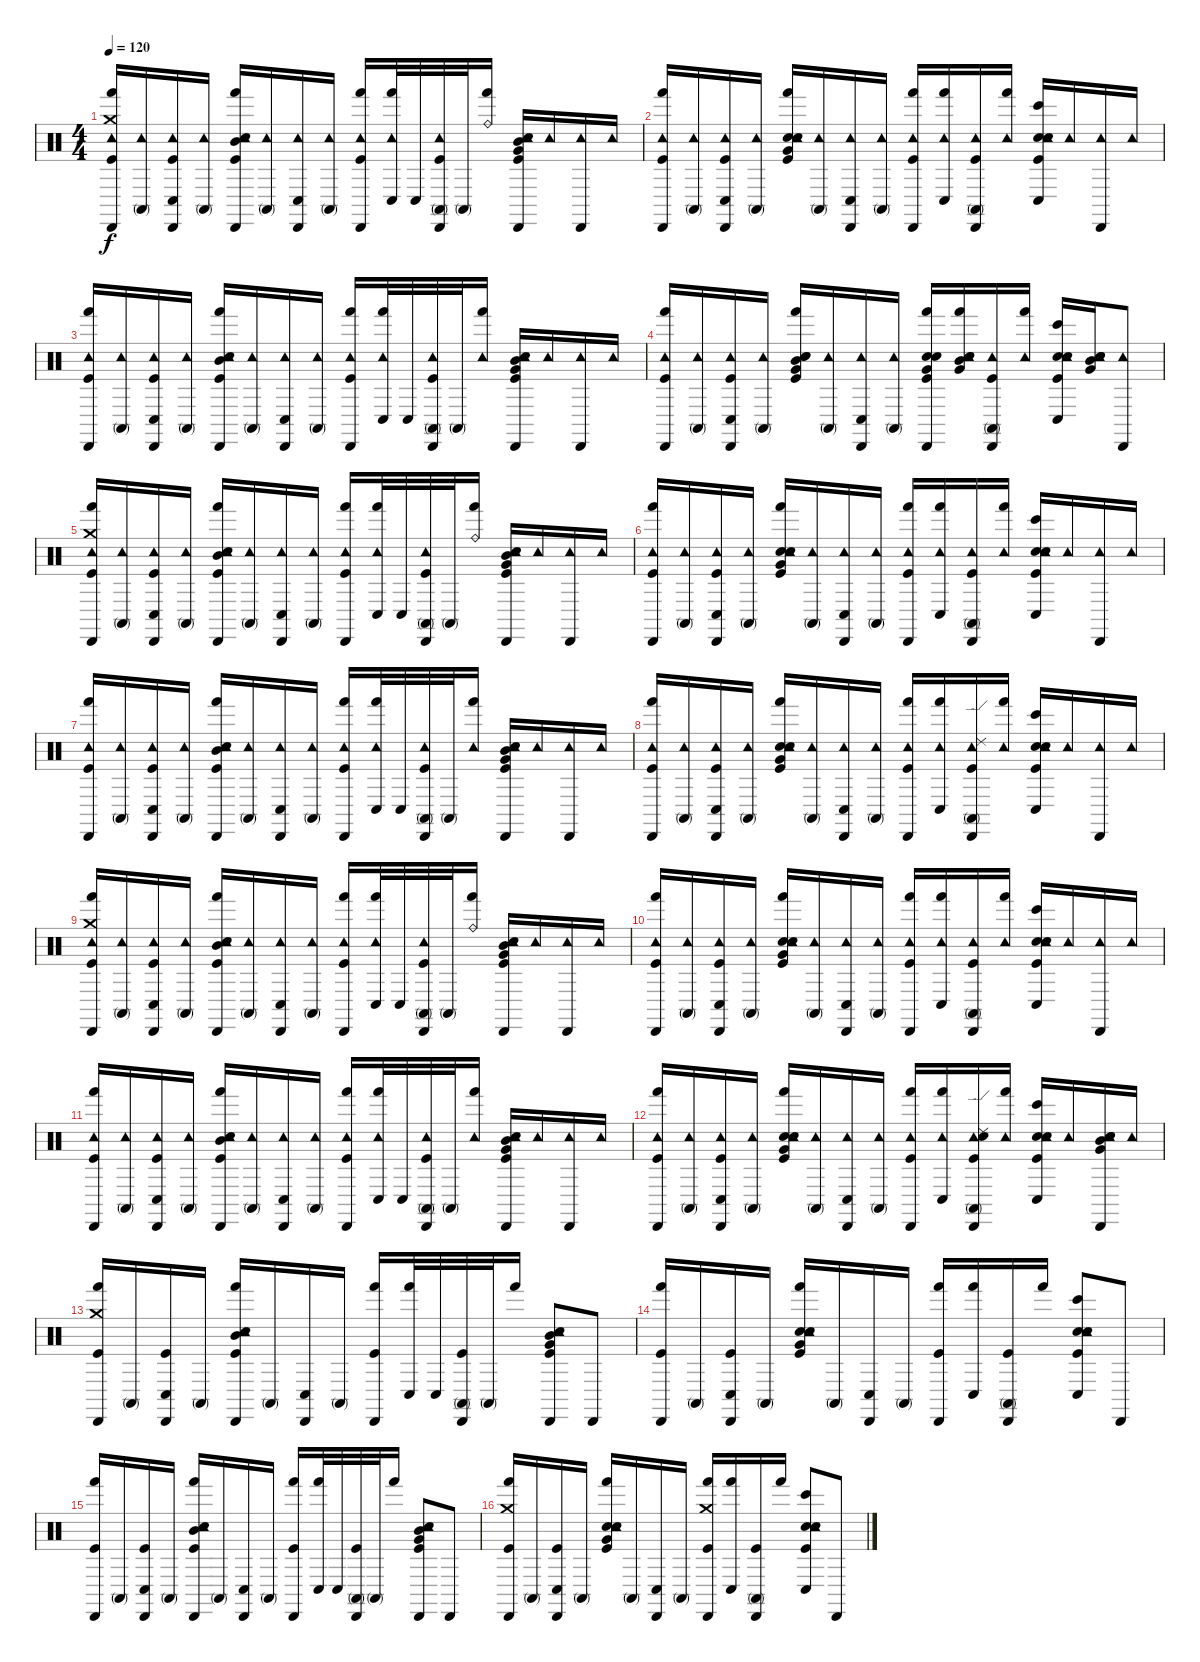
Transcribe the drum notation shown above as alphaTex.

\track "" {instrument percussion}
\staff {score}
\articulation defaults
\ts (4 4)
\tempo 120
\clef neutral
\ks c
("Hand (hit)" "Kick (hit)" "Cabasa (hit)" "Crash medium (hit)" "Tambourine (hit)").16{dy f} ("Conga high (mute)" "Tambourine (hit)").16 ("Conga low (hit)" "Kick (hit)" "Cabasa (hit)" "Tambourine (hit)").16 ("Conga high (mute)" "Tambourine (hit)").16 ("Hand (hit)" "Kick (hit)" "Tambourine (hit)" "Snare (hit) 2" "Cabasa (hit)" "Mid Tom (hit)").16 ("Conga high (mute)" "Tambourine (hit)").16 ("Conga low (hit)" "Cabasa (hit)" "Tambourine (hit)").16 ("Conga high (mute)" "Tambourine (hit)").16 ("Hand (hit)" "Kick (hit)" "Cabasa (hit)" "Tambourine (hit)").16 ("Conga low (hit)" "Hand (hit)" "Tambourine (hit)").32 "Conga low (hit)".32 ("Conga high (mute)" "Kick (hit)" "Cabasa (hit)" "Tambourine (hit)").32 "Conga high (mute)".32 ("Hand (hit)" "Ride (bell)").16 ("Kick (hit)" "Snare (hit) 2" "Tambourine (hit)" "Cabasa (hit)" "Mid Tom (hit)" "Very Low Tom (hit)").16 "Tambourine (hit)".16 ("Cabasa (hit)" "Tambourine (hit)").16 "Tambourine (hit)".16 |
("Hand (hit)" "Kick (hit)" "Cabasa (hit)" "Tambourine (hit)").16 ("Conga high (mute)" "Tambourine (hit)").16 ("Conga low (hit)" "Kick (hit)" "Cabasa (hit)" "Tambourine (hit)").16 ("Conga high (mute)" "Tambourine (hit)").16 ("Hand (hit)" "Kick (hit)" "Snare (hit) 2" "Tambourine (hit)" "Electric Snare (hit)" "Very Low Tom (hit)").16 ("Conga high (mute)" "Tambourine (hit)").16 ("Conga low (hit)" "Cabasa (hit)" "Tambourine (hit)").16 ("Conga high (mute)" "Tambourine (hit)").16 ("Hand (hit)" "Kick (hit)" "Cabasa (hit)" "Tambourine (hit)").16 ("Conga low (hit)" "Hand (hit)" "Tambourine (hit)").16 ("Conga high (mute)" "Kick (hit)" "Cabasa (hit)" "Tambourine (hit)").16 ("Hand (hit)" "Tambourine (hit)").16 ("Kick (hit)" "Snare (hit) 2" "Tambourine (hit)" "Bongo High (hit)" "Conga low (hit)" "Electric Snare (hit)").16 "Tambourine (hit)".16 ("Cabasa (hit)" "Tambourine (hit)").16 "Tambourine (hit)".16 |
("Hand (hit)" "Kick (hit)" "Cabasa (hit)" "Tambourine (hit)").16 ("Conga high (mute)" "Tambourine (hit)").16 ("Conga low (hit)" "Kick (hit)" "Cabasa (hit)" "Tambourine (hit)").16 ("Conga high (mute)" "Tambourine (hit)").16 ("Hand (hit)" "Kick (hit)" "Tambourine (hit)" "Snare (hit) 2" "Cabasa (hit)" "Mid Tom (hit)").16 ("Conga high (mute)" "Tambourine (hit)").16 ("Conga low (hit)" "Cabasa (hit)" "Tambourine (hit)").16 ("Conga high (mute)" "Tambourine (hit)").16 ("Hand (hit)" "Kick (hit)" "Cabasa (hit)" "Tambourine (hit)").16 ("Conga low (hit)" "Hand (hit)" "Tambourine (hit)").32 "Conga low (hit)".32 ("Conga high (mute)" "Kick (hit)" "Cabasa (hit)" "Tambourine (hit)").32 "Conga high (mute)".32 ("Hand (hit)" "Tambourine (hit)").16 ("Kick (hit)" "Snare (hit) 2" "Tambourine (hit)" "Cabasa (hit)" "Mid Tom (hit)" "Very Low Tom (hit)").16 "Tambourine (hit)".16 ("Cabasa (hit)" "Tambourine (hit)").16 "Tambourine (hit)".16 |
("Hand (hit)" "Kick (hit)" "Cabasa (hit)" "Tambourine (hit)").16 ("Conga high (mute)" "Tambourine (hit)").16 ("Conga low (hit)" "Kick (hit)" "Cabasa (hit)" "Tambourine (hit)").16 ("Conga high (mute)" "Tambourine (hit)").16 ("Hand (hit)" "Kick (hit)" "Snare (hit) 2" "Electric Snare (hit)" "Very Low Tom (hit)" "Mid Tom (hit)").16 ("Conga high (mute)" "Tambourine (hit)").16 ("Conga low (hit)" "Cabasa (hit)" "Tambourine (hit)").16 ("Conga high (mute)" "Tambourine (hit)").16 ("Hand (hit)" "Kick (hit)" "Cabasa (hit)" "Electric Snare (hit)" "Snare (hit) 2" "Very Low Tom (hit)").16 ("Hand (hit)" "Snare (hit) 2" "Electric Snare (hit)" "Very Low Tom (hit)" "Mid Tom (hit)" "Tambourine (hit)").16 ("Conga high (mute)" "Kick (hit)" "Cabasa (hit)" "Tambourine (hit)").16 ("Hand (hit)" "Tambourine (hit)").16 ("Kick (hit)" "Snare (hit) 2" "Tambourine (hit)" "Bongo High (hit)" "Conga low (hit)" "Electric Snare (hit)").16 ("Snare (hit) 2" "Electric Snare (hit)" "Very Low Tom (hit)" "Mid Tom (hit)" "Tambourine (hit)").16 ("Cabasa (hit)" "Tambourine (hit)").8 |
("Hand (hit)" "Kick (hit)" "Cabasa (hit)" "Crash medium (hit)" "Tambourine (hit)").16 ("Conga high (mute)" "Tambourine (hit)").16 ("Conga low (hit)" "Kick (hit)" "Cabasa (hit)" "Tambourine (hit)").16 ("Conga high (mute)" "Tambourine (hit)").16 ("Hand (hit)" "Kick (hit)" "Tambourine (hit)" "Snare (hit) 2" "Cabasa (hit)" "Mid Tom (hit)").16 ("Conga high (mute)" "Tambourine (hit)").16 ("Conga low (hit)" "Cabasa (hit)" "Tambourine (hit)").16 ("Conga high (mute)" "Tambourine (hit)").16 ("Hand (hit)" "Kick (hit)" "Cabasa (hit)" "Tambourine (hit)").16 ("Conga low (hit)" "Hand (hit)" "Tambourine (hit)").32 "Conga low (hit)".32 ("Conga high (mute)" "Kick (hit)" "Cabasa (hit)" "Tambourine (hit)").32 "Conga high (mute)".32 ("Hand (hit)" "Ride (bell)").16 ("Kick (hit)" "Snare (hit) 2" "Tambourine (hit)" "Cabasa (hit)" "Mid Tom (hit)" "Very Low Tom (hit)").16 "Tambourine (hit)".16 ("Cabasa (hit)" "Tambourine (hit)").16 "Tambourine (hit)".16 |
("Hand (hit)" "Kick (hit)" "Cabasa (hit)" "Tambourine (hit)").16 ("Conga high (mute)" "Tambourine (hit)").16 ("Conga low (hit)" "Kick (hit)" "Cabasa (hit)" "Tambourine (hit)").16 ("Conga high (mute)" "Tambourine (hit)").16 ("Hand (hit)" "Kick (hit)" "Snare (hit) 2" "Tambourine (hit)" "Electric Snare (hit)" "Very Low Tom (hit)").16 ("Conga high (mute)" "Tambourine (hit)").16 ("Conga low (hit)" "Cabasa (hit)" "Tambourine (hit)").16 ("Conga high (mute)" "Tambourine (hit)").16 ("Hand (hit)" "Kick (hit)" "Cabasa (hit)" "Tambourine (hit)").16 ("Conga low (hit)" "Hand (hit)" "Tambourine (hit)").16 ("Conga high (mute)" "Kick (hit)" "Cabasa (hit)" "Tambourine (hit)").16 ("Hand (hit)" "Tambourine (hit)").16 ("Kick (hit)" "Snare (hit) 2" "Tambourine (hit)" "Bongo High (hit)" "Conga low (hit)" "Electric Snare (hit)").16 "Tambourine (hit)".16 ("Cabasa (hit)" "Tambourine (hit)").16 "Tambourine (hit)".16 |
("Hand (hit)" "Kick (hit)" "Cabasa (hit)" "Tambourine (hit)").16 ("Conga high (mute)" "Tambourine (hit)").16 ("Conga low (hit)" "Kick (hit)" "Cabasa (hit)" "Tambourine (hit)").16 ("Conga high (mute)" "Tambourine (hit)").16 ("Hand (hit)" "Kick (hit)" "Tambourine (hit)" "Snare (hit) 2" "Cabasa (hit)" "Mid Tom (hit)").16 ("Conga high (mute)" "Tambourine (hit)").16 ("Conga low (hit)" "Cabasa (hit)" "Tambourine (hit)").16 ("Conga high (mute)" "Tambourine (hit)").16 ("Hand (hit)" "Kick (hit)" "Cabasa (hit)" "Tambourine (hit)").16 ("Conga low (hit)" "Hand (hit)" "Tambourine (hit)").32 "Conga low (hit)".32 ("Conga high (mute)" "Kick (hit)" "Cabasa (hit)" "Tambourine (hit)").32 "Conga high (mute)".32 ("Hand (hit)" "Tambourine (hit)").16 ("Kick (hit)" "Snare (hit) 2" "Tambourine (hit)" "Cabasa (hit)" "Mid Tom (hit)" "Very Low Tom (hit)").16 "Tambourine (hit)".16 ("Cabasa (hit)" "Tambourine (hit)").16 "Tambourine (hit)".16 |
("Hand (hit)" "Kick (hit)" "Cabasa (hit)" "Tambourine (hit)").16 ("Conga high (mute)" "Tambourine (hit)").16 ("Conga low (hit)" "Kick (hit)" "Cabasa (hit)" "Tambourine (hit)").16 ("Conga high (mute)" "Tambourine (hit)").16 ("Hand (hit)" "Kick (hit)" "Snare (hit) 2" "Tambourine (hit)" "Electric Snare (hit)" "Very Low Tom (hit)").16 ("Conga high (mute)" "Tambourine (hit)").16 ("Conga low (hit)" "Cabasa (hit)" "Tambourine (hit)").16 ("Conga high (mute)" "Tambourine (hit)").16 ("Hand (hit)" "Kick (hit)" "Cabasa (hit)" "Tambourine (hit)").16 ("Conga low (hit)" "Hand (hit)" "Tambourine (hit)").16 ("Conga high (mute)" "Kick (hit)" "Cabasa (hit)" "Ride (edge) 2" "Tambourine (hit)").16 ("Hand (hit)" "Tambourine (hit)").16 ("Kick (hit)" "Snare (hit) 2" "Tambourine (hit)" "Bongo High (hit)" "Conga low (hit)" "Electric Snare (hit)").16 "Tambourine (hit)".16 ("Cabasa (hit)" "Tambourine (hit)").16 "Tambourine (hit)".16 |
("Hand (hit)" "Kick (hit)" "Cabasa (hit)" "Crash medium (hit)" "Tambourine (hit)").16 ("Conga high (mute)" "Tambourine (hit)").16 ("Conga low (hit)" "Kick (hit)" "Cabasa (hit)" "Tambourine (hit)").16 ("Conga high (mute)" "Tambourine (hit)").16 ("Hand (hit)" "Kick (hit)" "Tambourine (hit)" "Snare (hit) 2" "Cabasa (hit)" "Mid Tom (hit)").16 ("Conga high (mute)" "Tambourine (hit)").16 ("Conga low (hit)" "Cabasa (hit)" "Tambourine (hit)").16 ("Conga high (mute)" "Tambourine (hit)").16 ("Hand (hit)" "Kick (hit)" "Cabasa (hit)" "Tambourine (hit)").16 ("Conga low (hit)" "Hand (hit)" "Tambourine (hit)").32 "Conga low (hit)".32 ("Conga high (mute)" "Kick (hit)" "Cabasa (hit)" "Tambourine (hit)").32 "Conga high (mute)".32 ("Hand (hit)" "Ride (bell)").16 ("Kick (hit)" "Snare (hit) 2" "Tambourine (hit)" "Cabasa (hit)" "Mid Tom (hit)" "Very Low Tom (hit)").16 "Tambourine (hit)".16 ("Cabasa (hit)" "Tambourine (hit)").16 "Tambourine (hit)".16 |
("Hand (hit)" "Kick (hit)" "Cabasa (hit)" "Tambourine (hit)").16 ("Conga high (mute)" "Tambourine (hit)").16 ("Conga low (hit)" "Kick (hit)" "Cabasa (hit)" "Tambourine (hit)").16 ("Conga high (mute)" "Tambourine (hit)").16 ("Hand (hit)" "Kick (hit)" "Snare (hit) 2" "Tambourine (hit)" "Electric Snare (hit)" "Very Low Tom (hit)").16 ("Conga high (mute)" "Tambourine (hit)").16 ("Conga low (hit)" "Cabasa (hit)" "Tambourine (hit)").16 ("Conga high (mute)" "Tambourine (hit)").16 ("Hand (hit)" "Kick (hit)" "Cabasa (hit)" "Tambourine (hit)").16 ("Conga low (hit)" "Hand (hit)" "Tambourine (hit)").16 ("Conga high (mute)" "Kick (hit)" "Cabasa (hit)" "Tambourine (hit)").16 ("Hand (hit)" "Tambourine (hit)").16 ("Kick (hit)" "Snare (hit) 2" "Tambourine (hit)" "Bongo High (hit)" "Conga low (hit)" "Electric Snare (hit)").16 "Tambourine (hit)".16 ("Cabasa (hit)" "Tambourine (hit)").16 "Tambourine (hit)".16 |
("Hand (hit)" "Kick (hit)" "Cabasa (hit)" "Tambourine (hit)").16 ("Conga high (mute)" "Tambourine (hit)").16 ("Conga low (hit)" "Kick (hit)" "Cabasa (hit)" "Tambourine (hit)").16 ("Conga high (mute)" "Tambourine (hit)").16 ("Hand (hit)" "Kick (hit)" "Tambourine (hit)" "Snare (hit) 2" "Cabasa (hit)" "Mid Tom (hit)").16 ("Conga high (mute)" "Tambourine (hit)").16 ("Conga low (hit)" "Cabasa (hit)" "Tambourine (hit)").16 ("Conga high (mute)" "Tambourine (hit)").16 ("Hand (hit)" "Kick (hit)" "Cabasa (hit)" "Tambourine (hit)").16 ("Conga low (hit)" "Hand (hit)" "Tambourine (hit)").32 "Conga low (hit)".32 ("Conga high (mute)" "Kick (hit)" "Cabasa (hit)" "Tambourine (hit)").32 "Conga high (mute)".32 ("Hand (hit)" "Tambourine (hit)").16 ("Kick (hit)" "Snare (hit) 2" "Tambourine (hit)" "Cabasa (hit)" "Mid Tom (hit)" "Very Low Tom (hit)").16 "Tambourine (hit)".16 ("Cabasa (hit)" "Tambourine (hit)").16 "Tambourine (hit)".16 |
("Hand (hit)" "Kick (hit)" "Cabasa (hit)" "Tambourine (hit)").16 ("Conga high (mute)" "Tambourine (hit)").16 ("Conga low (hit)" "Kick (hit)" "Cabasa (hit)" "Tambourine (hit)").16 ("Conga high (mute)" "Tambourine (hit)").16 ("Hand (hit)" "Kick (hit)" "Snare (hit) 2" "Tambourine (hit)" "Electric Snare (hit)" "Very Low Tom (hit)").16 ("Conga high (mute)" "Tambourine (hit)").16 ("Conga low (hit)" "Cabasa (hit)" "Tambourine (hit)").16 ("Conga high (mute)" "Tambourine (hit)").16 ("Hand (hit)" "Kick (hit)" "Cabasa (hit)" "Tambourine (hit)").16 ("Conga low (hit)" "Hand (hit)" "Tambourine (hit)").16 ("Conga high (mute)" "Kick (hit)" "Cabasa (hit)" "Ride (edge) 2" "Tambourine (hit)" "Electric Snare (hit)").16 ("Hand (hit)" "Tambourine (hit)").16 ("Kick (hit)" "Snare (hit) 2" "Tambourine (hit)" "Bongo High (hit)" "Conga low (hit)" "Electric Snare (hit)").16 "Tambourine (hit)".16 ("Cabasa (hit)" "Tambourine (hit)" "Mid Tom (hit)" "Very Low Tom (hit)" "Electric Snare (hit)" "Snare (hit) 2").16 "Tambourine (hit)".16 |
("Hand (hit)" "Kick (hit)" "Cabasa (hit)" "Crash medium (hit)").16 "Conga high (mute)".16 ("Conga low (hit)" "Kick (hit)" "Cabasa (hit)").16 "Conga high (mute)".16 ("Hand (hit)" "Kick (hit)" "Tambourine (hit)" "Snare (hit) 2" "Cabasa (hit)" "Mid Tom (hit)").16 "Conga high (mute)".16 ("Conga low (hit)" "Cabasa (hit)").16 "Conga high (mute)".16 ("Hand (hit)" "Kick (hit)" "Cabasa (hit)").16 ("Conga low (hit)" "Hand (hit)").32 "Conga low (hit)".32 ("Conga high (mute)" "Kick (hit)" "Cabasa (hit)").32 "Conga high (mute)".32 "Hand (hit)".16 ("Kick (hit)" "Snare (hit) 2" "Tambourine (hit)" "Cabasa (hit)" "Mid Tom (hit)" "Very Low Tom (hit)").8 "Cabasa (hit)".8 |
("Hand (hit)" "Kick (hit)" "Cabasa (hit)").16 "Conga high (mute)".16 ("Conga low (hit)" "Kick (hit)" "Cabasa (hit)").16 "Conga high (mute)".16 ("Hand (hit)" "Kick (hit)" "Snare (hit) 2" "Tambourine (hit)" "Electric Snare (hit)" "Very Low Tom (hit)").16 "Conga high (mute)".16 ("Conga low (hit)" "Cabasa (hit)").16 "Conga high (mute)".16 ("Hand (hit)" "Kick (hit)" "Cabasa (hit)").16 ("Conga low (hit)" "Hand (hit)").16 ("Conga high (mute)" "Kick (hit)" "Cabasa (hit)").16 "Hand (hit)".16 ("Kick (hit)" "Snare (hit) 2" "Tambourine (hit)" "Bongo High (hit)" "Conga low (hit)" "Electric Snare (hit)").8 "Cabasa (hit)".8 |
("Hand (hit)" "Kick (hit)" "Cabasa (hit)").16 "Conga high (mute)".16 ("Conga low (hit)" "Kick (hit)" "Cabasa (hit)").16 "Conga high (mute)".16 ("Hand (hit)" "Kick (hit)" "Tambourine (hit)" "Snare (hit) 2" "Cabasa (hit)" "Mid Tom (hit)").16 "Conga high (mute)".16 ("Conga low (hit)" "Cabasa (hit)").16 "Conga high (mute)".16 ("Hand (hit)" "Kick (hit)" "Cabasa (hit)").16 ("Conga low (hit)" "Hand (hit)").32 "Conga low (hit)".32 ("Conga high (mute)" "Kick (hit)" "Cabasa (hit)").32 "Conga high (mute)".32 "Hand (hit)".16 ("Kick (hit)" "Snare (hit) 2" "Tambourine (hit)" "Cabasa (hit)" "Mid Tom (hit)" "Very Low Tom (hit)").8 "Cabasa (hit)".8 |
("Hand (hit)" "Kick (hit)" "Cabasa (hit)" "Crash medium (hit)").16 "Conga high (mute)".16 ("Conga low (hit)" "Kick (hit)" "Cabasa (hit)").16 "Conga high (mute)".16 ("Hand (hit)" "Kick (hit)" "Snare (hit) 2" "Tambourine (hit)" "Electric Snare (hit)" "Very Low Tom (hit)").16 "Conga high (mute)".16 ("Conga low (hit)" "Cabasa (hit)").16 "Conga high (mute)".16 ("Hand (hit)" "Kick (hit)" "Cabasa (hit)" "Crash medium (hit)").16 ("Conga low (hit)" "Hand (hit)").16 ("Conga high (mute)" "Kick (hit)" "Cabasa (hit)").16 "Hand (hit)".16 ("Kick (hit)" "Snare (hit) 2" "Tambourine (hit)" "Bongo High (hit)" "Conga low (hit)" "Electric Snare (hit)").8 "Cabasa (hit)".8
